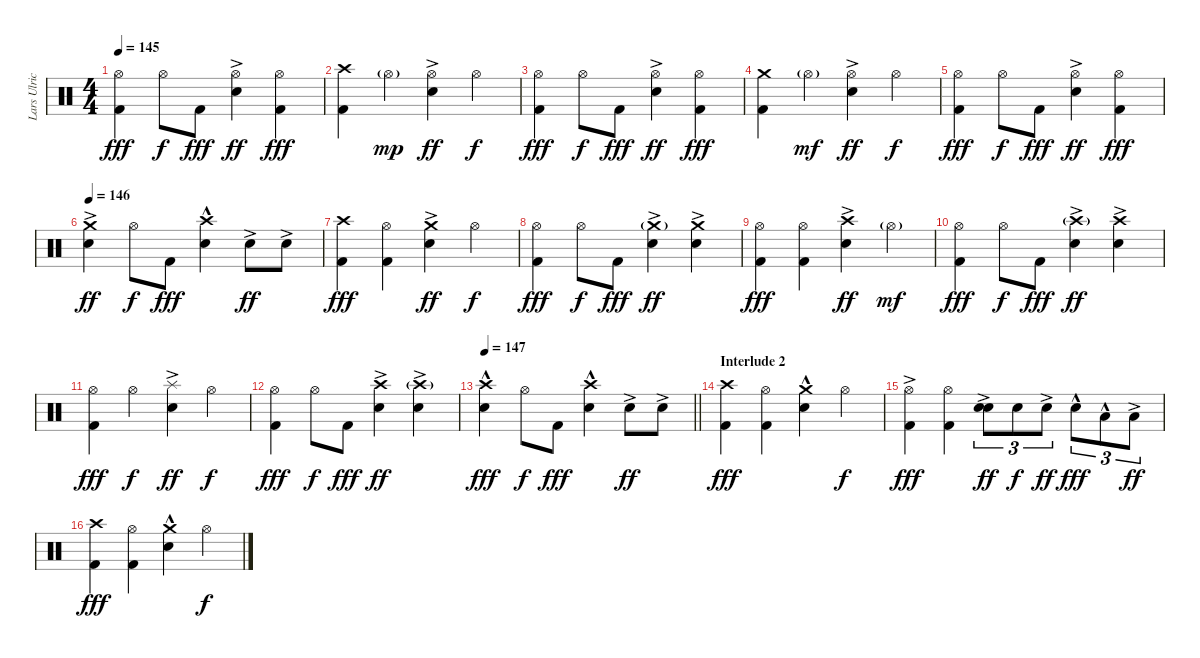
\track ("Lars Ulrich (Drums)" "Lars Ulric") {instrument percussion}
\staff {score}
\articulation defaults
\ts (4 4)
\tempo 145
\clef neutral
\ks c
("Hi-Hat (open)" "Kick (hit) 2").4{dy fff} "Hi-Hat (open)".8{dy f} "Kick (hit) 2".8{dy fff} ("Hi-Hat (open)"{ac} "Electric Snare (hit)"{ac}).4{dy ff} ("Hi-Hat (open)" "Kick (hit) 2").4{dy fff} |
("Crash high (hit)" "Kick (hit) 2").4 "Hi-Hat (open)"{g}.4{dy mp} ("Hi-Hat (open)"{ac} "Electric Snare (hit)"{ac}).4{dy ff} "Hi-Hat (open)".4{dy f} |
("Hi-Hat (open)" "Kick (hit) 2").4{dy fff} "Hi-Hat (open)".8{dy f} "Kick (hit) 2".8{dy fff} ("Hi-Hat (open)"{ac} "Electric Snare (hit)"{ac}).4{dy ff} ("Hi-Hat (open)" "Kick (hit) 2").4{dy fff} |
("Crash medium (hit)" "Kick (hit) 2").4 "Hi-Hat (open)"{g}.4{dy mf} ("Hi-Hat (open)"{ac} "Electric Snare (hit)"{ac}).4{dy ff} "Hi-Hat (open)".4{dy f} |
("Hi-Hat (open)" "Kick (hit) 2").4{dy fff} "Hi-Hat (open)".8{dy f} "Kick (hit) 2".8{dy fff} ("Hi-Hat (open)"{ac} "Electric Snare (hit)"{ac}).4{dy ff} ("Hi-Hat (open)" "Kick (hit) 2").4{dy fff} |
\tempo 146
("Crash medium (hit)" "Electric Snare (hit)"{ac}).4{dy ff} "Hi-Hat (open)".8{dy f} "Kick (hit) 2".8{dy fff} ("Crash high (hit)" "Electric Snare (hit)"{hac}).4 "Electric Snare (hit)"{ac}.8{dy ff} "Electric Snare (hit)"{ac}.8 |
("Crash high (hit)" "Kick (hit) 2").4{dy fff} ("Hi-Hat (open)" "Kick (hit) 2").4 ("Crash medium (hit)" "Electric Snare (hit)"{ac}).4{dy ff} "Hi-Hat (open)".4{dy f} |
("Hi-Hat (open)" "Kick (hit) 2").4{dy fff} "Hi-Hat (open)".8{dy f} "Kick (hit) 2".8{dy fff} ("Crash medium (hit)"{g} "Electric Snare (hit)"{ac}).4{dy ff} ("Crash medium (hit)" "Electric Snare (hit)"{ac}).4 |
("Hi-Hat (open)" "Kick (hit) 2").4{dy fff} ("Hi-Hat (open)" "Kick (hit) 2").4 ("Crash high (hit)" "Electric Snare (hit)"{ac}).4{dy ff} "Hi-Hat (open)"{g}.4{dy mf} |
("Hi-Hat (open)" "Kick (hit) 2").4{dy fff} "Hi-Hat (open)".8{dy f} "Kick (hit) 2".8{dy fff} ("Crash high (hit)"{g} "Electric Snare (hit)"{ac}).4{dy ff} ("Crash high (hit)" "Electric Snare (hit)"{ac}).4 |
("Hi-Hat (open)" "Kick (hit) 2").4{dy fff} "Hi-Hat (open)".4{dy f} ("Splash (hit)" "Electric Snare (hit)"{ac}).4{dy ff} "Hi-Hat (open)".4{dy f} |
("Hi-Hat (open)" "Kick (hit) 2").4{dy fff} "Hi-Hat (open)".8{dy f} "Kick (hit) 2".8{dy fff} ("Crash high (hit)" "Electric Snare (hit)"{ac}).4{dy ff} ("Crash high (hit)"{g} "Electric Snare (hit)"{ac}).4 |
\tempo 147
\barLineRight lightlight
("Crash high (hit)" "Electric Snare (hit)"{hac}).4{dy fff} "Hi-Hat (open)".8{dy f} "Kick (hit) 2".8{dy fff} ("Crash high (hit)" "Electric Snare (hit)"{hac}).4 "Electric Snare (hit)"{ac}.8{dy ff} "Electric Snare (hit)"{ac}.8 |
\section ("" "Interlude 2")
("Crash high (hit)" "Kick (hit) 2").4{dy fff} ("Hi-Hat (open)" "Kick (hit) 2").4 ("Crash medium (hit)" "Electric Snare (hit)"{hac}).4 "Hi-Hat (open)".4{dy f} |
("Hi-Hat (open)"{ac} "Kick (hit) 2").4{dy fff} ("Hi-Hat (open)" "Kick (hit) 2").4 ("Electric Snare (hit)"{ac} "Electric Snare (hit)"{ac}).8{tu (3 2) bd 240 dy ff} "Electric Snare (hit)".8{tu (3 2) dy f} "Electric Snare (hit)"{ac}.8{tu (3 2) dy ff} "Electric Snare (hit)"{hac}.8{tu (3 2) dy fff} "Low Tom (hit)"{hac}.8{tu (3 2)} "Low Tom (hit)"{ac}.8{tu (3 2) dy ff} |
("Crash high (hit)" "Kick (hit) 2").4{dy fff} ("Hi-Hat (open)" "Kick (hit) 2").4 ("Crash medium (hit)" "Electric Snare (hit)"{hac}).4 "Hi-Hat (open)".4{dy f}
